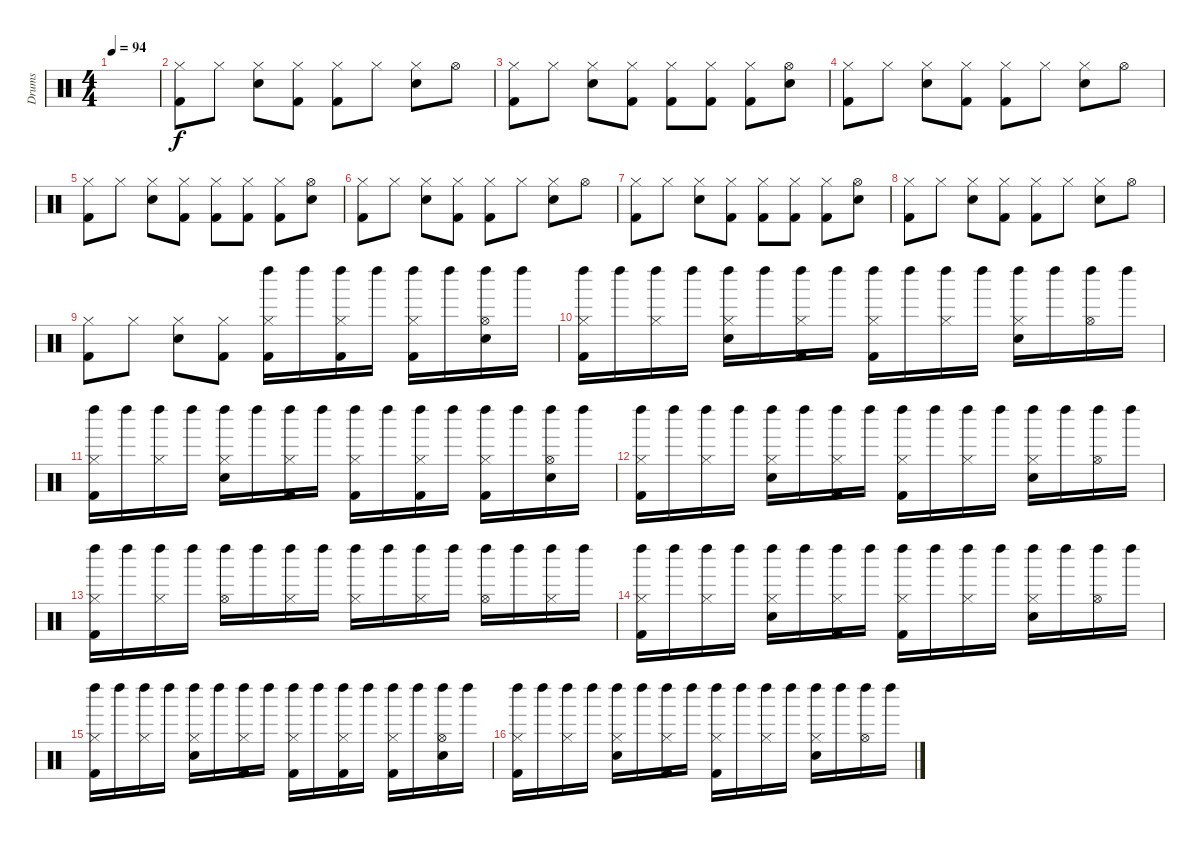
\track ("Drums" "Drums") {instrument percussion}
\staff {score}
\articulation defaults
\ts (4 4)
\tempo 94
\clef neutral
\ks c
|
("Hi-Hat (closed)" "Kick (hit) 2").8 "Hi-Hat (closed)".8 ("Hi-Hat (closed)" "Snare (hit) 2").8 ("Hi-Hat (closed)" "Kick (hit) 2").8 ("Hi-Hat (closed)" "Kick (hit) 2").8 "Hi-Hat (closed)".8 ("Hi-Hat (closed)" "Snare (hit) 2").8 "Hi-Hat (open)".8 |
("Hi-Hat (closed)" "Kick (hit) 2").8 "Hi-Hat (closed)".8 ("Hi-Hat (closed)" "Snare (hit) 2").8 ("Hi-Hat (closed)" "Kick (hit) 2").8 ("Hi-Hat (closed)" "Kick (hit) 2").8 ("Hi-Hat (closed)" "Kick (hit) 2").8 ("Hi-Hat (closed)" "Kick (hit) 2").8 ("Hi-Hat (open)" "Snare (hit) 2").8 |
("Hi-Hat (closed)" "Kick (hit) 2").8 "Hi-Hat (closed)".8 ("Hi-Hat (closed)" "Snare (hit) 2").8 ("Hi-Hat (closed)" "Kick (hit) 2").8 ("Hi-Hat (closed)" "Kick (hit) 2").8 "Hi-Hat (closed)".8 ("Hi-Hat (closed)" "Snare (hit) 2").8 "Hi-Hat (open)".8 |
("Hi-Hat (closed)" "Kick (hit) 2").8 "Hi-Hat (closed)".8 ("Hi-Hat (closed)" "Snare (hit) 2").8 ("Hi-Hat (closed)" "Kick (hit) 2").8 ("Hi-Hat (closed)" "Kick (hit) 2").8 ("Hi-Hat (closed)" "Kick (hit) 2").8 ("Hi-Hat (closed)" "Kick (hit) 2").8 ("Hi-Hat (open)" "Snare (hit) 2").8 |
("Hi-Hat (closed)" "Kick (hit) 2").8 "Hi-Hat (closed)".8 ("Hi-Hat (closed)" "Snare (hit) 2").8 ("Hi-Hat (closed)" "Kick (hit) 2").8 ("Hi-Hat (closed)" "Kick (hit) 2").8 "Hi-Hat (closed)".8 ("Hi-Hat (closed)" "Snare (hit) 2").8 "Hi-Hat (open)".8 |
("Hi-Hat (closed)" "Kick (hit) 2").8 "Hi-Hat (closed)".8 ("Hi-Hat (closed)" "Snare (hit) 2").8 ("Hi-Hat (closed)" "Kick (hit) 2").8 ("Hi-Hat (closed)" "Kick (hit) 2").8 ("Hi-Hat (closed)" "Kick (hit) 2").8 ("Hi-Hat (closed)" "Kick (hit) 2").8 ("Hi-Hat (open)" "Snare (hit) 2").8 |
("Hi-Hat (closed)" "Kick (hit) 2").8 "Hi-Hat (closed)".8 ("Hi-Hat (closed)" "Snare (hit) 2").8 ("Hi-Hat (closed)" "Kick (hit) 2").8 ("Hi-Hat (closed)" "Kick (hit) 2").8 "Hi-Hat (closed)".8 ("Hi-Hat (closed)" "Snare (hit) 2").8 "Hi-Hat (open)".8 |
("Hi-Hat (closed)" "Kick (hit) 2").8 "Hi-Hat (closed)".8 ("Hi-Hat (closed)" "Snare (hit) 2").8 ("Hi-Hat (closed)" "Kick (hit) 2").8 ("Left Maraca (hit)" "Hi-Hat (closed)" "Kick (hit) 2").16 "Left Maraca (hit)".16 ("Left Maraca (hit)" "Hi-Hat (closed)" "Kick (hit) 2").16 "Left Maraca (hit)".16 ("Left Maraca (hit)" "Hi-Hat (closed)" "Kick (hit) 2").16 "Left Maraca (hit)".16 ("Left Maraca (hit)" "Hi-Hat (open)" "Snare (hit) 2").16 "Left Maraca (hit)".16 |
("Left Maraca (hit)" "Hi-Hat (closed)" "Kick (hit) 2").16 "Left Maraca (hit)".16 ("Left Maraca (hit)" "Hi-Hat (closed)").16 "Left Maraca (hit)".16 ("Left Maraca (hit)" "Hi-Hat (closed)" "Snare (hit) 2").16 "Left Maraca (hit)".16 ("Left Maraca (hit)" "Hi-Hat (closed)" "Kick (hit) 2").16 "Left Maraca (hit)".16 ("Left Maraca (hit)" "Hi-Hat (closed)" "Kick (hit) 2").16 "Left Maraca (hit)".16 ("Left Maraca (hit)" "Hi-Hat (closed)").16 "Left Maraca (hit)".16 ("Left Maraca (hit)" "Hi-Hat (closed)" "Snare (hit) 2").16 "Left Maraca (hit)".16 ("Left Maraca (hit)" "Hi-Hat (open)").16 "Left Maraca (hit)".16 |
("Left Maraca (hit)" "Hi-Hat (closed)" "Kick (hit) 2").16 "Left Maraca (hit)".16 ("Left Maraca (hit)" "Hi-Hat (closed)").16 "Left Maraca (hit)".16 ("Left Maraca (hit)" "Hi-Hat (closed)" "Snare (hit) 2").16 "Left Maraca (hit)".16 ("Left Maraca (hit)" "Hi-Hat (closed)" "Kick (hit) 2").16 "Left Maraca (hit)".16 ("Left Maraca (hit)" "Hi-Hat (closed)" "Kick (hit) 2").16 "Left Maraca (hit)".16 ("Left Maraca (hit)" "Hi-Hat (closed)" "Kick (hit) 2").16 "Left Maraca (hit)".16 ("Left Maraca (hit)" "Hi-Hat (closed)" "Kick (hit) 2").16 "Left Maraca (hit)".16 ("Left Maraca (hit)" "Hi-Hat (open)" "Snare (hit) 2").16 "Left Maraca (hit)".16 |
("Left Maraca (hit)" "Hi-Hat (closed)" "Kick (hit) 2").16 "Left Maraca (hit)".16 ("Left Maraca (hit)" "Hi-Hat (closed)").16 "Left Maraca (hit)".16 ("Left Maraca (hit)" "Hi-Hat (closed)" "Snare (hit) 2").16 "Left Maraca (hit)".16 ("Left Maraca (hit)" "Hi-Hat (closed)" "Kick (hit) 2").16 "Left Maraca (hit)".16 ("Left Maraca (hit)" "Hi-Hat (closed)" "Kick (hit) 2").16 "Left Maraca (hit)".16 ("Left Maraca (hit)" "Hi-Hat (closed)").16 "Left Maraca (hit)".16 ("Left Maraca (hit)" "Hi-Hat (closed)" "Snare (hit) 2").16 "Left Maraca (hit)".16 ("Left Maraca (hit)" "Hi-Hat (open)").16 "Left Maraca (hit)".16 |
("Left Maraca (hit)" "Hi-Hat (closed)" "Kick (hit) 2").16 "Left Maraca (hit)".16 ("Left Maraca (hit)" "Hi-Hat (closed)").16 "Left Maraca (hit)".16 ("Left Maraca (hit)" "Hi-Hat (open)").16 "Left Maraca (hit)".16 ("Left Maraca (hit)" "Hi-Hat (closed)").16 "Left Maraca (hit)".16 ("Left Maraca (hit)" "Hi-Hat (closed)").16 "Left Maraca (hit)".16 ("Left Maraca (hit)" "Hi-Hat (closed)").16 "Left Maraca (hit)".16 ("Left Maraca (hit)" "Hi-Hat (open)").16 "Left Maraca (hit)".16 ("Left Maraca (hit)" "Hi-Hat (closed)").16 "Left Maraca (hit)".16 |
("Left Maraca (hit)" "Hi-Hat (closed)" "Kick (hit) 2").16 "Left Maraca (hit)".16 ("Left Maraca (hit)" "Hi-Hat (closed)").16 "Left Maraca (hit)".16 ("Left Maraca (hit)" "Hi-Hat (closed)" "Snare (hit) 2").16 "Left Maraca (hit)".16 ("Left Maraca (hit)" "Hi-Hat (closed)" "Kick (hit) 2").16 "Left Maraca (hit)".16 ("Left Maraca (hit)" "Hi-Hat (closed)" "Kick (hit) 2").16 "Left Maraca (hit)".16 ("Left Maraca (hit)" "Hi-Hat (closed)").16 "Left Maraca (hit)".16 ("Left Maraca (hit)" "Hi-Hat (closed)" "Snare (hit) 2").16 "Left Maraca (hit)".16 ("Left Maraca (hit)" "Hi-Hat (open)").16 "Left Maraca (hit)".16 |
("Left Maraca (hit)" "Hi-Hat (closed)" "Kick (hit) 2").16 "Left Maraca (hit)".16 ("Left Maraca (hit)" "Hi-Hat (closed)").16 "Left Maraca (hit)".16 ("Left Maraca (hit)" "Hi-Hat (closed)" "Snare (hit) 2").16 "Left Maraca (hit)".16 ("Left Maraca (hit)" "Hi-Hat (closed)" "Kick (hit) 2").16 "Left Maraca (hit)".16 ("Left Maraca (hit)" "Hi-Hat (closed)" "Kick (hit) 2").16 "Left Maraca (hit)".16 ("Left Maraca (hit)" "Hi-Hat (closed)" "Kick (hit) 2").16 "Left Maraca (hit)".16 ("Left Maraca (hit)" "Hi-Hat (closed)" "Kick (hit) 2").16 "Left Maraca (hit)".16 ("Left Maraca (hit)" "Hi-Hat (open)" "Snare (hit) 2").16 "Left Maraca (hit)".16 |
("Left Maraca (hit)" "Hi-Hat (closed)" "Kick (hit) 2").16 "Left Maraca (hit)".16 ("Left Maraca (hit)" "Hi-Hat (closed)").16 "Left Maraca (hit)".16 ("Left Maraca (hit)" "Hi-Hat (closed)" "Snare (hit) 2").16 "Left Maraca (hit)".16 ("Left Maraca (hit)" "Hi-Hat (closed)" "Kick (hit) 2").16 "Left Maraca (hit)".16 ("Left Maraca (hit)" "Hi-Hat (closed)" "Kick (hit) 2").16 "Left Maraca (hit)".16 ("Left Maraca (hit)" "Hi-Hat (closed)").16 "Left Maraca (hit)".16 ("Left Maraca (hit)" "Hi-Hat (closed)" "Snare (hit) 2").16 "Left Maraca (hit)".16 ("Left Maraca (hit)" "Hi-Hat (open)").16 "Left Maraca (hit)".16
